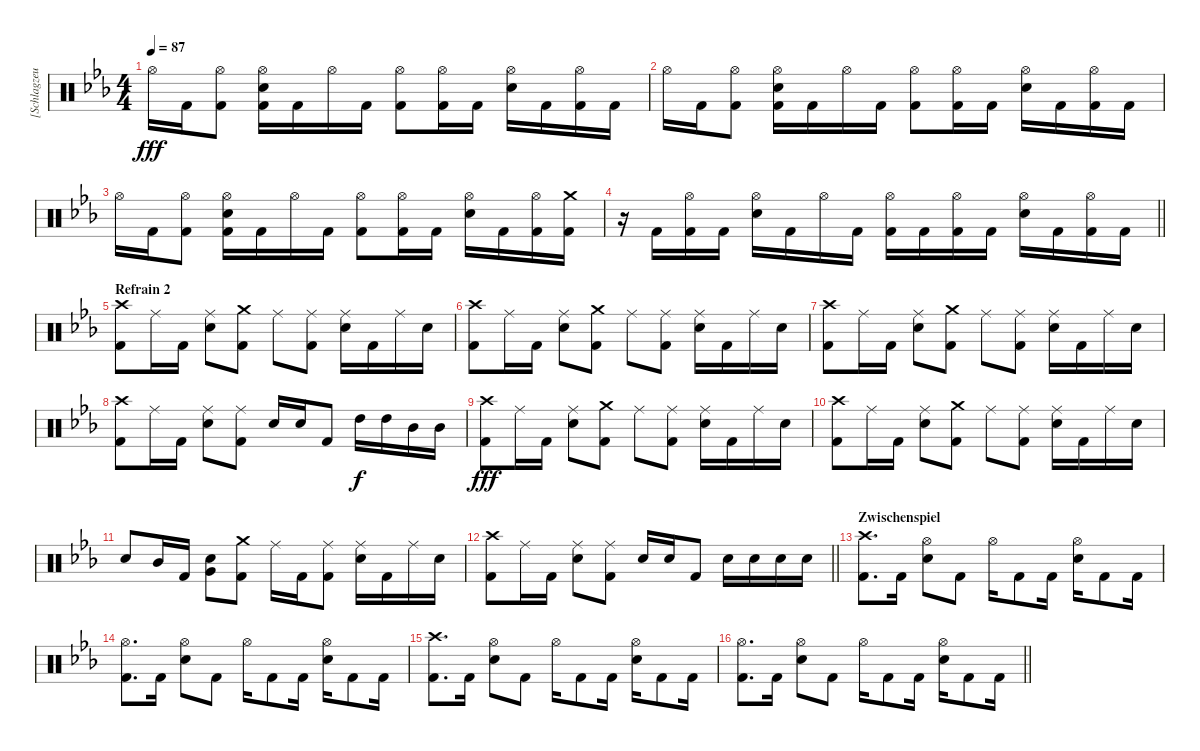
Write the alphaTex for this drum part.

\track ("[Schlagzeug]" "[Schlagzeu") {instrument percussion}
\staff {score}
\articulation defaults
\ts (4 4)
\tempo 87
\clef neutral
\ks cminor "Hi-Hat (open)".16{dy fff} "Kick (hit) 2".16
("Hi-Hat (open)" "Kick (hit) 2").8 ("Hi-Hat (open)" "Kick (hit) 2" "Electric Snare (hit)").16 "Kick (hit) 2".16 "Hi-Hat (open)".16 "Kick (hit) 2".16 ("Hi-Hat (open)" "Kick (hit) 2").8 ("Kick (hit) 2" "Hi-Hat (open)").16 "Kick (hit) 2".16 ("Hi-Hat (open)" "Electric Snare (hit)").16 "Kick (hit) 2".16 ("Kick (hit) 2" "Hi-Hat (open)").16 "Kick (hit) 2".16 |
"Hi-Hat (open)".16 "Kick (hit) 2".16 ("Hi-Hat (open)" "Kick (hit) 2").8 ("Hi-Hat (open)" "Kick (hit) 2" "Electric Snare (hit)").16 "Kick (hit) 2".16 "Hi-Hat (open)".16 "Kick (hit) 2".16 ("Hi-Hat (open)" "Kick (hit) 2").8 ("Kick (hit) 2" "Hi-Hat (open)").16 "Kick (hit) 2".16 ("Hi-Hat (open)" "Electric Snare (hit)").16 "Kick (hit) 2".16 ("Kick (hit) 2" "Hi-Hat (open)").16 "Kick (hit) 2".16 |
"Hi-Hat (open)".16 "Kick (hit) 2".16 ("Kick (hit) 2" "Hi-Hat (open)").8 ("Hi-Hat (open)" "Kick (hit) 2" "Electric Snare (hit)").16 "Kick (hit) 2".16 "Hi-Hat (open)".16 "Kick (hit) 2".16 ("Hi-Hat (open)" "Kick (hit) 2").8 ("Kick (hit) 2" "Hi-Hat (open)").16 "Kick (hit) 2".16 ("Hi-Hat (open)" "Electric Snare (hit)").16 "Kick (hit) 2".16 ("Kick (hit) 2" "Hi-Hat (open)").16 ("Crash medium (hit)" "Kick (hit) 2").16 |
\barLineRight lightlight
r.16 "Kick (hit) 2".16 ("Hi-Hat (open)" "Kick (hit) 2").16 "Kick (hit) 2".16 ("Hi-Hat (open)" "Electric Snare (hit)").16 "Kick (hit) 2".16 "Hi-Hat (open)".16 "Kick (hit) 2".16 ("Kick (hit) 2" "Hi-Hat (open)").16 "Kick (hit) 2".16 ("Kick (hit) 2" "Hi-Hat (open)").16 "Kick (hit) 2".16 ("Hi-Hat (open)" "Electric Snare (hit)").16 "Kick (hit) 2".16 ("Kick (hit) 2" "Hi-Hat (open)").16 "Kick (hit) 2".16 |
\section ("" "Refrain 2")
("Kick (hit) 2" "Crash high (hit)").8 "Ride (middle)".16 "Kick (hit) 2".16 ("Electric Snare (hit)" "Ride (middle)").8 ("Crash medium (hit)" "Kick (hit) 2").8 "Ride (middle)".8 ("Kick (hit) 2" "Ride (middle)").8 ("Electric Snare (hit)" "Ride (middle)").16 "Kick (hit) 2".16 "Ride (middle)".16 "Electric Snare (hit)".16 |
("Kick (hit) 2" "Crash high (hit)").8 "Ride (middle)".16 "Kick (hit) 2".16 ("Electric Snare (hit)" "Ride (middle)").8 ("Crash medium (hit)" "Kick (hit) 2").8 "Ride (middle)".8 ("Kick (hit) 2" "Ride (middle)").8 ("Electric Snare (hit)" "Ride (middle)").16 "Kick (hit) 2".16 "Ride (middle)".16 "Electric Snare (hit)".16 |
("Kick (hit) 2" "Crash high (hit)").8 "Ride (middle)".16 "Kick (hit) 2".16 ("Electric Snare (hit)" "Ride (middle)").8 ("Crash medium (hit)" "Kick (hit) 2").8 "Ride (middle)".8 ("Kick (hit) 2" "Ride (middle)").8 ("Electric Snare (hit)" "Ride (middle)").16 "Kick (hit) 2".16 "Ride (middle)".16 "Electric Snare (hit)".16 |
("Kick (hit) 2" "Crash high (hit)").8 "Ride (middle)".16 "Kick (hit) 2".16 ("Electric Snare (hit)" "Ride (middle)").8 ("Kick (hit) 2" "Ride (middle)").8 "Electric Snare (hit)".16 "Electric Snare (hit)".16 "Kick (hit) 2".8 "High Tom (hit)".16{dy f} "High Tom (hit)".16 "Mid Tom (hit)".16 "Mid Tom (hit)".16 |
("Kick (hit) 2" "Crash high (hit)").8{dy fff} "Ride (middle)".16 "Kick (hit) 2".16 ("Electric Snare (hit)" "Ride (middle)").8 ("Crash medium (hit)" "Kick (hit) 2").8 "Ride (middle)".8 ("Kick (hit) 2" "Ride (middle)").8 ("Electric Snare (hit)" "Ride (middle)").16 "Kick (hit) 2".16 "Ride (middle)".16 "Electric Snare (hit)".16 |
("Kick (hit) 2" "Crash high (hit)").8 "Ride (middle)".16 "Kick (hit) 2".16 ("Electric Snare (hit)" "Ride (middle)").8 ("Crash medium (hit)" "Kick (hit) 2").8 "Ride (middle)".8 ("Kick (hit) 2" "Ride (middle)").8 ("Electric Snare (hit)" "Ride (middle)").16 "Kick (hit) 2".16 "Ride (middle)".16 "Electric Snare (hit)".16 |
"Electric Snare (hit)".8 "Mid Tom (hit)".16 "Kick (hit) 2".16 ("Very Low Tom (hit)" "Electric Snare (hit)").8 ("Crash medium (hit)" "Kick (hit) 2").8 "Ride (middle)".16 "Kick (hit) 2".16 ("Ride (middle)" "Kick (hit) 2").8 ("Electric Snare (hit)" "Ride (middle)").16 "Kick (hit) 2".16 "Ride (middle)".16 "Electric Snare (hit)".16 |
\barLineRight lightlight
("Kick (hit) 2" "Crash high (hit)").8 "Ride (middle)".16 "Kick (hit) 2".16 ("Ride (middle)" "Electric Snare (hit)").8 ("Ride (middle)" "Kick (hit) 2").8 "Electric Snare (hit)".16 "Electric Snare (hit)".16 "Kick (hit) 2".8 "Electric Snare (hit)".16 "Electric Snare (hit)".16 "Electric Snare (hit)".16 "Electric Snare (hit)".16 |
\section ("" "Zwischenspiel")
("Kick (hit) 2" "Crash high (hit)").8{d} "Kick (hit) 2".16 ("Hi-Hat (open)" "Electric Snare (hit)").8 "Kick (hit) 2".8 "Hi-Hat (open)".16 "Kick (hit) 2".8 "Kick (hit) 2".16 ("Electric Snare (hit)" "Hi-Hat (open)").16 "Kick (hit) 2".8 "Kick (hit) 2".16 |
("Hi-Hat (open)" "Kick (hit) 2").8{d} "Kick (hit) 2".16 ("Hi-Hat (open)" "Electric Snare (hit)").8 "Kick (hit) 2".8 "Hi-Hat (open)".16 "Kick (hit) 2".8 "Kick (hit) 2".16 ("Electric Snare (hit)" "Hi-Hat (open)").16 "Kick (hit) 2".8 "Kick (hit) 2".16 |
("Kick (hit) 2" "Crash high (hit)").8{d} "Kick (hit) 2".16 ("Hi-Hat (open)" "Electric Snare (hit)").8 "Kick (hit) 2".8 "Hi-Hat (open)".16 "Kick (hit) 2".8 "Kick (hit) 2".16 ("Electric Snare (hit)" "Hi-Hat (open)").16 "Kick (hit) 2".8 "Kick (hit) 2".16 |
\barLineRight lightlight
("Hi-Hat (open)" "Kick (hit) 2").8{d} "Kick (hit) 2".16 ("Hi-Hat (open)" "Electric Snare (hit)").8 "Kick (hit) 2".8 "Hi-Hat (open)".16 "Kick (hit) 2".8 "Kick (hit) 2".16 ("Electric Snare (hit)" "Hi-Hat (open)").16 "Kick (hit) 2".8 "Kick (hit) 2".16
